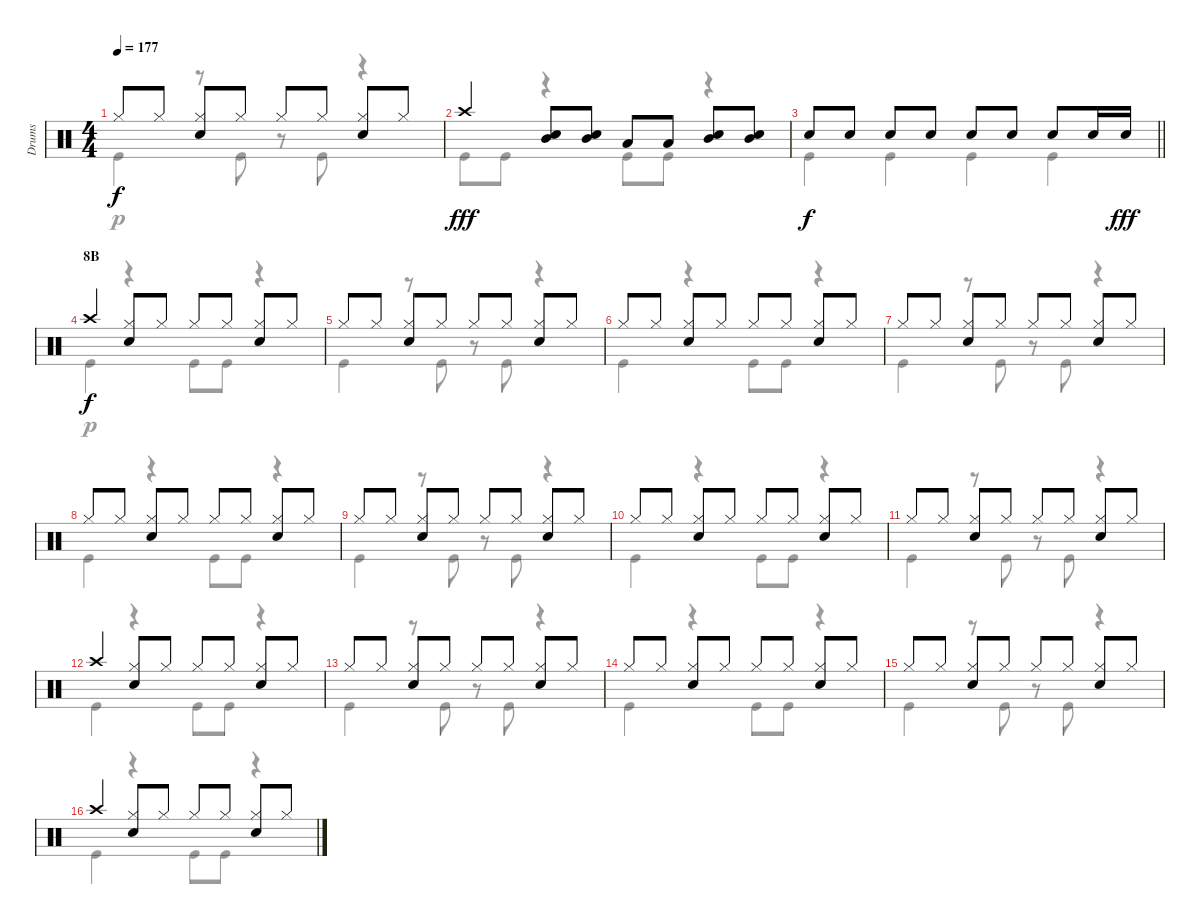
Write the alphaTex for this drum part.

\track ("Drums" "Drums") {instrument percussion}
\staff {score}
\articulation defaults
\voice
\ts (4 4)
\tempo 177
\clef neutral
\ks c "Hi-Hat (closed)".8{dy f} "Hi-Hat (closed)".8
("Hi-Hat (closed)" "Snare (hit) 2").8 "Hi-Hat (closed)".8 "Hi-Hat (closed)".8 "Hi-Hat (closed)".8 ("Hi-Hat (closed)" "Snare (hit) 2").8 "Hi-Hat (closed)".8 |
"Crash high (hit)".4{dy fff} ("Mid Tom (hit)" "Snare (hit) 2").8 ("Mid Tom (hit)" "Snare (hit) 2").8 "Low Tom (hit)".8 "Low Tom (hit)".8 ("Mid Tom (hit)" "Snare (hit) 2").8 ("Mid Tom (hit)" "Snare (hit) 2").8 |
\barLineRight lightlight "Snare (hit) 2".8{dy f} "Snare (hit) 2".8 "Snare (hit) 2".8 "Snare (hit) 2".8 "Snare (hit) 2".8 "Snare (hit) 2".8 "Snare (hit) 2".8 "Snare (hit) 2".16 "Snare (hit) 2".16{dy fff}
|
\section ("" "8B")
"Crash high (hit)".4{dy f} ("Hi-Hat (closed)" "Snare (hit) 2").8 "Hi-Hat (closed)".8 "Hi-Hat (closed)".8 "Hi-Hat (closed)".8 ("Hi-Hat (closed)" "Snare (hit) 2").8 "Hi-Hat (closed)".8 |
"Hi-Hat (closed)".8 "Hi-Hat (closed)".8 ("Hi-Hat (closed)" "Snare (hit) 2").8 "Hi-Hat (closed)".8 "Hi-Hat (closed)".8 "Hi-Hat (closed)".8 ("Hi-Hat (closed)" "Snare (hit) 2").8 "Hi-Hat (closed)".8 |
"Hi-Hat (closed)".8 "Hi-Hat (closed)".8 ("Hi-Hat (closed)" "Snare (hit) 2").8 "Hi-Hat (closed)".8 "Hi-Hat (closed)".8 "Hi-Hat (closed)".8 ("Hi-Hat (closed)" "Snare (hit) 2").8 "Hi-Hat (closed)".8 |
"Hi-Hat (closed)".8 "Hi-Hat (closed)".8 ("Hi-Hat (closed)" "Snare (hit) 2").8 "Hi-Hat (closed)".8 "Hi-Hat (closed)".8 "Hi-Hat (closed)".8 ("Hi-Hat (closed)" "Snare (hit) 2").8 "Hi-Hat (closed)".8 |
"Hi-Hat (closed)".8 "Hi-Hat (closed)".8 ("Hi-Hat (closed)" "Snare (hit) 2").8 "Hi-Hat (closed)".8 "Hi-Hat (closed)".8 "Hi-Hat (closed)".8 ("Hi-Hat (closed)" "Snare (hit) 2").8 "Hi-Hat (closed)".8 |
"Hi-Hat (closed)".8 "Hi-Hat (closed)".8 ("Hi-Hat (closed)" "Snare (hit) 2").8 "Hi-Hat (closed)".8 "Hi-Hat (closed)".8 "Hi-Hat (closed)".8 ("Hi-Hat (closed)" "Snare (hit) 2").8 "Hi-Hat (closed)".8 |
"Hi-Hat (closed)".8 "Hi-Hat (closed)".8 ("Hi-Hat (closed)" "Snare (hit) 2").8 "Hi-Hat (closed)".8 "Hi-Hat (closed)".8 "Hi-Hat (closed)".8 ("Hi-Hat (closed)" "Snare (hit) 2").8 "Hi-Hat (closed)".8 |
"Hi-Hat (closed)".8 "Hi-Hat (closed)".8 ("Hi-Hat (closed)" "Snare (hit) 2").8 "Hi-Hat (closed)".8 "Hi-Hat (closed)".8 "Hi-Hat (closed)".8 ("Hi-Hat (closed)" "Snare (hit) 2").8 "Hi-Hat (closed)".8 |
"Crash high (hit)".4 ("Hi-Hat (closed)" "Snare (hit) 2").8 "Hi-Hat (closed)".8 "Hi-Hat (closed)".8 "Hi-Hat (closed)".8 ("Hi-Hat (closed)" "Snare (hit) 2").8 "Hi-Hat (closed)".8 |
"Hi-Hat (closed)".8 "Hi-Hat (closed)".8 ("Hi-Hat (closed)" "Snare (hit) 2").8 "Hi-Hat (closed)".8 "Hi-Hat (closed)".8 "Hi-Hat (closed)".8 ("Hi-Hat (closed)" "Snare (hit) 2").8 "Hi-Hat (closed)".8 |
"Hi-Hat (closed)".8 "Hi-Hat (closed)".8 ("Hi-Hat (closed)" "Snare (hit) 2").8 "Hi-Hat (closed)".8 "Hi-Hat (closed)".8 "Hi-Hat (closed)".8 ("Hi-Hat (closed)" "Snare (hit) 2").8 "Hi-Hat (closed)".8 |
"Hi-Hat (closed)".8 "Hi-Hat (closed)".8 ("Hi-Hat (closed)" "Snare (hit) 2").8 "Hi-Hat (closed)".8 "Hi-Hat (closed)".8 "Hi-Hat (closed)".8 ("Hi-Hat (closed)" "Snare (hit) 2").8 "Hi-Hat (closed)".8 |
"Crash high (hit)".4 ("Hi-Hat (closed)" "Snare (hit) 2").8 "Hi-Hat (closed)".8 "Hi-Hat (closed)".8 "Hi-Hat (closed)".8 ("Hi-Hat (closed)" "Snare (hit) 2").8 "Hi-Hat (closed)".8
\voice
\clef neutral
\ottava regular
\simile none
\ks c "Kick (hit)".4{dy p}
r.8 "Kick (hit)".8 r.8 "Kick (hit)".8 r.4 |
"Kick (hit)".8{dy fff} "Kick (hit)".8 r.4 "Kick (hit)".8 "Kick (hit)".8 r.4 |
\barLineRight lightlight "Kick (hit)".4{dy f} "Kick (hit)".4 "Kick (hit)".4 "Kick (hit)".4
|
"Kick (hit)".4{dy p} r.4 "Kick (hit)".8 "Kick (hit)".8 r.4 |
"Kick (hit)".4 r.8 "Kick (hit)".8 r.8 "Kick (hit)".8 r.4 |
"Kick (hit)".4 r.4 "Kick (hit)".8 "Kick (hit)".8 r.4 |
"Kick (hit)".4 r.8 "Kick (hit)".8 r.8 "Kick (hit)".8 r.4 |
"Kick (hit)".4 r.4 "Kick (hit)".8 "Kick (hit)".8 r.4 |
"Kick (hit)".4 r.8 "Kick (hit)".8 r.8 "Kick (hit)".8 r.4 |
"Kick (hit)".4 r.4 "Kick (hit)".8 "Kick (hit)".8 r.4 |
"Kick (hit)".4 r.8 "Kick (hit)".8 r.8 "Kick (hit)".8 r.4 |
"Kick (hit)".4 r.4 "Kick (hit)".8 "Kick (hit)".8 r.4 |
"Kick (hit)".4 r.8 "Kick (hit)".8 r.8 "Kick (hit)".8 r.4 |
"Kick (hit)".4 r.4 "Kick (hit)".8 "Kick (hit)".8 r.4 |
"Kick (hit)".4 r.8 "Kick (hit)".8 r.8 "Kick (hit)".8 r.4 |
"Kick (hit)".4 r.4 "Kick (hit)".8 "Kick (hit)".8 r.4
